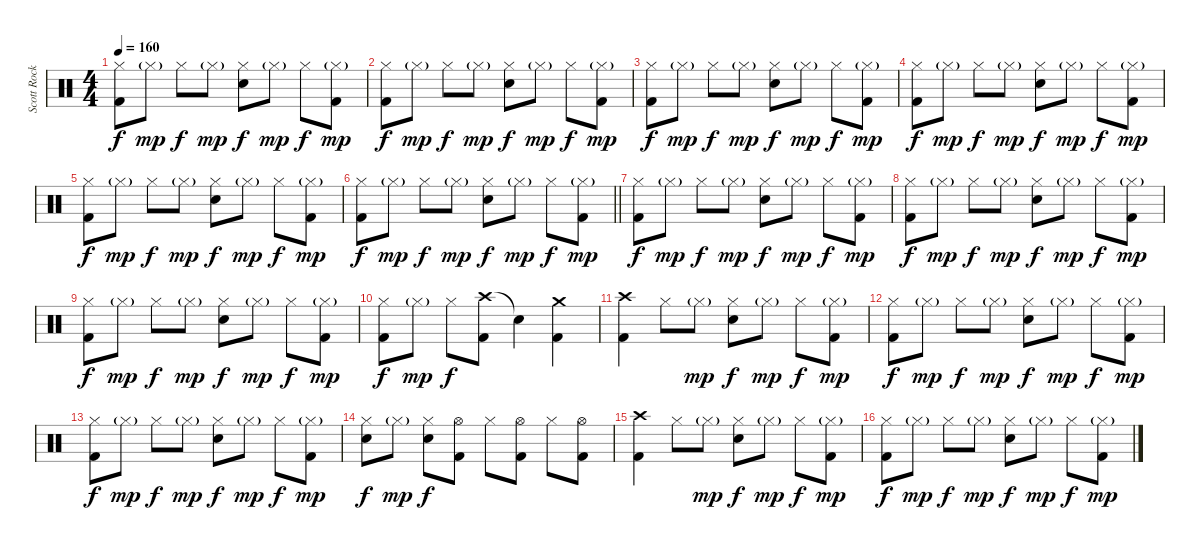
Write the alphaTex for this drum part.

\track ("Scott Rockenfield" "Scott Rock") {instrument percussion}
\staff {score}
\articulation defaults
\ts (4 4)
\tempo 160
\clef neutral
\ks c
("Hi-Hat (closed)" "Kick (hit) 2").8{dy f} "Hi-Hat (closed)"{g}.8{dy mp} "Hi-Hat (closed)".8{dy f} "Hi-Hat (closed)"{g}.8{dy mp} ("Hi-Hat (closed)" "Electric Snare (hit)").8{dy f} "Hi-Hat (closed)"{g}.8{dy mp} "Hi-Hat (closed)".8{dy f} ("Hi-Hat (closed)"{g} "Kick (hit) 2").8{dy mp} |
("Hi-Hat (closed)" "Kick (hit) 2").8{dy f} "Hi-Hat (closed)"{g}.8{dy mp} "Hi-Hat (closed)".8{dy f} "Hi-Hat (closed)"{g}.8{dy mp} ("Hi-Hat (closed)" "Electric Snare (hit)").8{dy f} "Hi-Hat (closed)"{g}.8{dy mp} "Hi-Hat (closed)".8{dy f} ("Hi-Hat (closed)"{g} "Kick (hit) 2").8{dy mp} |
("Hi-Hat (closed)" "Kick (hit) 2").8{dy f} "Hi-Hat (closed)"{g}.8{dy mp} "Hi-Hat (closed)".8{dy f} "Hi-Hat (closed)"{g}.8{dy mp} ("Hi-Hat (closed)" "Electric Snare (hit)").8{dy f} "Hi-Hat (closed)"{g}.8{dy mp} "Hi-Hat (closed)".8{dy f} ("Hi-Hat (closed)"{g} "Kick (hit) 2").8{dy mp} |
("Hi-Hat (closed)" "Kick (hit) 2").8{dy f} "Hi-Hat (closed)"{g}.8{dy mp} "Hi-Hat (closed)".8{dy f} "Hi-Hat (closed)"{g}.8{dy mp} ("Hi-Hat (closed)" "Electric Snare (hit)").8{dy f} "Hi-Hat (closed)"{g}.8{dy mp} "Hi-Hat (closed)".8{dy f} ("Hi-Hat (closed)"{g} "Kick (hit) 2").8{dy mp} |
("Hi-Hat (closed)" "Kick (hit) 2").8{dy f} "Hi-Hat (closed)"{g}.8{dy mp} "Hi-Hat (closed)".8{dy f} "Hi-Hat (closed)"{g}.8{dy mp} ("Hi-Hat (closed)" "Electric Snare (hit)").8{dy f} "Hi-Hat (closed)"{g}.8{dy mp} "Hi-Hat (closed)".8{dy f} ("Hi-Hat (closed)"{g} "Kick (hit) 2").8{dy mp} |
\barLineRight lightlight
("Hi-Hat (closed)" "Kick (hit) 2").8{dy f} "Hi-Hat (closed)"{g}.8{dy mp} "Hi-Hat (closed)".8{dy f} "Hi-Hat (closed)"{g}.8{dy mp} ("Hi-Hat (closed)" "Electric Snare (hit)").8{dy f} "Hi-Hat (closed)"{g}.8{dy mp} "Hi-Hat (closed)".8{dy f} ("Hi-Hat (closed)"{g} "Kick (hit) 2").8{dy mp} |
("Hi-Hat (closed)" "Kick (hit) 2").8{dy f} "Hi-Hat (closed)"{g}.8{dy mp} "Hi-Hat (closed)".8{dy f} "Hi-Hat (closed)"{g}.8{dy mp} ("Hi-Hat (closed)" "Electric Snare (hit)").8{dy f} "Hi-Hat (closed)"{g}.8{dy mp} "Hi-Hat (closed)".8{dy f} ("Hi-Hat (closed)"{g} "Kick (hit) 2").8{dy mp} |
("Hi-Hat (closed)" "Kick (hit) 2").8{dy f} "Hi-Hat (closed)"{g}.8{dy mp} "Hi-Hat (closed)".8{dy f} "Hi-Hat (closed)"{g}.8{dy mp} ("Hi-Hat (closed)" "Electric Snare (hit)").8{dy f} "Hi-Hat (closed)"{g}.8{dy mp} "Hi-Hat (closed)".8{dy f} ("Hi-Hat (closed)"{g} "Kick (hit) 2").8{dy mp} |
("Hi-Hat (closed)" "Kick (hit) 2").8{dy f} "Hi-Hat (closed)"{g}.8{dy mp} "Hi-Hat (closed)".8{dy f} "Hi-Hat (closed)"{g}.8{dy mp} ("Hi-Hat (closed)" "Electric Snare (hit)").8{dy f} "Hi-Hat (closed)"{g}.8{dy mp} "Hi-Hat (closed)".8{dy f} ("Hi-Hat (closed)"{g} "Kick (hit) 2").8{dy mp} |
("Hi-Hat (closed)" "Kick (hit) 2").8{dy f} "Hi-Hat (closed)"{g}.8{dy mp} "Hi-Hat (closed)".8{dy f} ("Crash high (hit)" "Kick (hit) 2").8 "Snare (hit)"{t}.4 ("Crash medium (hit)" "Kick (hit) 2").4 |
("Crash high (hit)" "Kick (hit) 2").4 "Hi-Hat (closed)".8 "Hi-Hat (closed)"{g}.8{dy mp} ("Hi-Hat (closed)" "Electric Snare (hit)").8{dy f} "Hi-Hat (closed)"{g}.8{dy mp} "Hi-Hat (closed)".8{dy f} ("Hi-Hat (closed)"{g} "Kick (hit) 2").8{dy mp} |
("Hi-Hat (closed)" "Kick (hit) 2").8{dy f} "Hi-Hat (closed)"{g}.8{dy mp} "Hi-Hat (closed)".8{dy f} "Hi-Hat (closed)"{g}.8{dy mp} ("Hi-Hat (closed)" "Electric Snare (hit)").8{dy f} "Hi-Hat (closed)"{g}.8{dy mp} "Hi-Hat (closed)".8{dy f} ("Hi-Hat (closed)"{g} "Kick (hit) 2").8{dy mp} |
("Hi-Hat (closed)" "Kick (hit) 2").8{dy f} "Hi-Hat (closed)"{g}.8{dy mp} "Hi-Hat (closed)".8{dy f} "Hi-Hat (closed)"{g}.8{dy mp} ("Hi-Hat (closed)" "Electric Snare (hit)").8{dy f} "Hi-Hat (closed)"{g}.8{dy mp} "Hi-Hat (closed)".8{dy f} ("Hi-Hat (closed)"{g} "Kick (hit) 2").8{dy mp} |
("Hi-Hat (closed)" "Electric Snare (hit)").8{dy f} "Hi-Hat (closed)"{g}.8{dy mp} ("Hi-Hat (closed)" "Electric Snare (hit)").8{dy f} ("Hi-Hat (open)" "Kick (hit) 2").8 "Hi-Hat (closed)".8 ("Hi-Hat (open)" "Kick (hit) 2").8 "Hi-Hat (closed)".8 ("Hi-Hat (open)" "Kick (hit) 2").8 |
("Crash high (hit)" "Kick (hit) 2").4 "Hi-Hat (closed)".8 "Hi-Hat (closed)"{g}.8{dy mp} ("Hi-Hat (closed)" "Electric Snare (hit)").8{dy f} "Hi-Hat (closed)"{g}.8{dy mp} "Hi-Hat (closed)".8{dy f} ("Hi-Hat (closed)"{g} "Kick (hit) 2").8{dy mp} |
("Hi-Hat (closed)" "Kick (hit) 2").8{dy f} "Hi-Hat (closed)"{g}.8{dy mp} "Hi-Hat (closed)".8{dy f} "Hi-Hat (closed)"{g}.8{dy mp} ("Hi-Hat (closed)" "Electric Snare (hit)").8{dy f} "Hi-Hat (closed)"{g}.8{dy mp} "Hi-Hat (closed)".8{dy f} ("Hi-Hat (closed)"{g} "Kick (hit) 2").8{dy mp}
